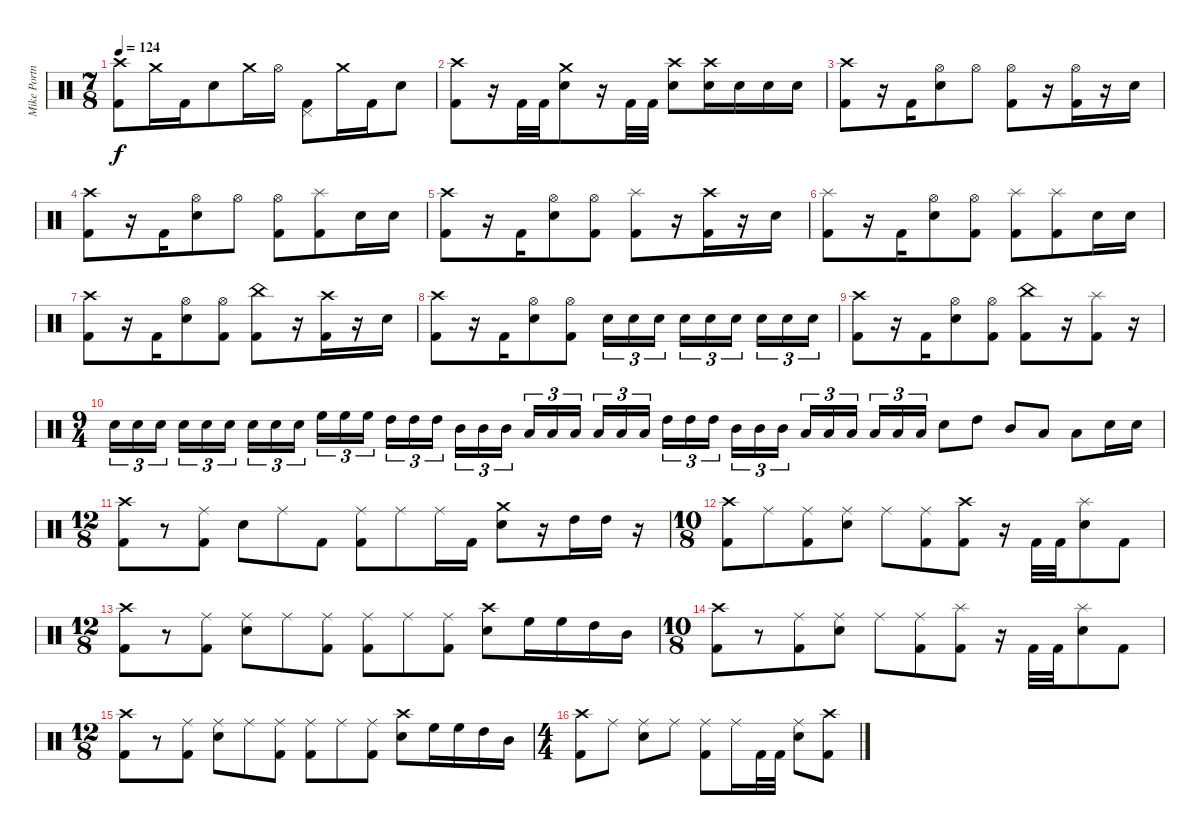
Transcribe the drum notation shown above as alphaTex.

\track ("Mike Portnoy - Drums" "Mike Portn") {instrument percussion}
\staff {score}
\articulation defaults
\ts (7 8)
\tempo 124
\clef neutral
\ks c
("Crash high (hit)" "Kick (hit) 2").8{dy f} "Crash medium (hit)".16 "Kick (hit) 2".16 "Electric Snare (hit)".8 "Crash medium (hit)".16 "Hi-Hat (open)".16 ("Pedal Hi-Hat (hit)" "Kick (hit) 2").8 "Crash medium (hit)".16 "Kick (hit) 2".16 "Electric Snare (hit)".8 |
("Crash high (hit)" "Kick (hit) 2").8 r.16 "Kick (hit) 2".32 "Kick (hit) 2".32 ("Crash medium (hit)" "Electric Snare (hit)").8 r.16 "Kick (hit) 2".32 "Kick (hit) 2".32 ("Crash high (hit)" "Electric Snare (hit)").8 ("Crash high (hit)" "Electric Snare (hit)").16 "Electric Snare (hit)".16 "Electric Snare (hit)".16 "Electric Snare (hit)".16 |
("Crash high (hit)" "Kick (hit) 2").8 r.16 "Kick (hit) 2".16 ("Hi-Hat (open)" "Electric Snare (hit)").8 "Hi-Hat (open)".8 ("Hi-Hat (open)" "Kick (hit) 2").8 r.16 ("Hi-Hat (open)" "Kick (hit) 2").16 r.16 "Electric Snare (hit)".16 |
("Crash high (hit)" "Kick (hit) 2").8 r.16 "Kick (hit) 2".16 ("Hi-Hat (open)" "Electric Snare (hit)").8 "Hi-Hat (open)".8 ("Hi-Hat (open)" "Kick (hit) 2").8 ("Splash (hit)" "Kick (hit) 2").8 "Electric Snare (hit)".16 "Electric Snare (hit)".16 |
("Crash high (hit)" "Kick (hit) 2").8 r.16 "Kick (hit) 2".16 ("Hi-Hat (open)" "Electric Snare (hit)").8 ("Hi-Hat (open)" "Kick (hit) 2").8 ("Splash (hit)" "Kick (hit) 2").8 r.16 ("Crash high (hit)" "Kick (hit) 2").16 r.16 "Electric Snare (hit)".16 |
("Splash (hit)" "Kick (hit) 2").8 r.16 "Kick (hit) 2".16 ("Hi-Hat (open)" "Electric Snare (hit)").8 ("Hi-Hat (open)" "Kick (hit) 2").8 ("Splash (hit)" "Kick (hit) 2").8 ("Splash (hit)" "Kick (hit) 2").8 "Electric Snare (hit)".16 "Electric Snare (hit)".16 |
("Crash high (hit)" "Kick (hit) 2").8 r.16 "Kick (hit) 2".16 ("Hi-Hat (open)" "Electric Snare (hit)").8 ("Hi-Hat (open)" "Kick (hit) 2").8 ("China (hit)" "Kick (hit) 2").8 r.16 ("Crash high (hit)" "Kick (hit) 2").16 r.16 "Electric Snare (hit)".16 |
("Crash high (hit)" "Kick (hit) 2").8 r.16 "Kick (hit) 2".16 ("Hi-Hat (open)" "Electric Snare (hit)").8 ("Hi-Hat (open)" "Kick (hit) 2").8 "Electric Snare (hit)".16{tu (3 2)} "Electric Snare (hit)".16{tu (3 2)} "Electric Snare (hit)".16{tu (3 2)} "Electric Snare (hit)".16{tu (3 2)} "Electric Snare (hit)".16{tu (3 2)} "Electric Snare (hit)".16{tu (3 2)} "Electric Snare (hit)".16{tu (3 2)} "Electric Snare (hit)".16{tu (3 2)} "Electric Snare (hit)".16{tu (3 2)} |
("Crash high (hit)" "Kick (hit) 2").8 r.16 "Kick (hit) 2".16 ("Hi-Hat (open)" "Electric Snare (hit)").8 ("Hi-Hat (open)" "Kick (hit) 2").8 ("China (hit)" "Kick (hit) 2").8 r.16 ("Splash (hit)" "Kick (hit) 2").8 r.16 |
\ts (9 4)
"Electric Snare (hit)".16{tu (3 2)} "Electric Snare (hit)".16{tu (3 2)} "Electric Snare (hit)".16{tu (3 2)} "Electric Snare (hit)".16{tu (3 2)} "Electric Snare (hit)".16{tu (3 2)} "Electric Snare (hit)".16{tu (3 2)} "Electric Snare (hit)".16{tu (3 2)} "Electric Snare (hit)".16{tu (3 2)} "Electric Snare (hit)".16{tu (3 2)} "High Floor Tom (hit)".16{tu (3 2)} "High Floor Tom (hit)".16{tu (3 2)} "High Floor Tom (hit)".16{tu (3 2)} "High Tom (hit)".16{tu (3 2)} "High Tom (hit)".16{tu (3 2)} "High Tom (hit)".16{tu (3 2)} "Mid Tom (hit)".16{tu (3 2)} "Mid Tom (hit)".16{tu (3 2)} "Mid Tom (hit)".16{tu (3 2)} "Low Tom (hit)".16{tu (3 2)} "Low Tom (hit)".16{tu (3 2)} "Low Tom (hit)".16{tu (3 2)} "Low Floor Tom (hit)".16{tu (3 2)} "Low Floor Tom (hit)".16{tu (3 2)} "Low Floor Tom (hit)".16{tu (3 2)} "High Tom (hit)".16{tu (3 2)} "High Tom (hit)".16{tu (3 2)} "High Tom (hit)".16{tu (3 2)} "Mid Tom (hit)".16{tu (3 2)} "Mid Tom (hit)".16{tu (3 2)} "Mid Tom (hit)".16{tu (3 2)} "Low Tom (hit)".16{tu (3 2)} "Low Tom (hit)".16{tu (3 2)} "Low Tom (hit)".16{tu (3 2)} "Low Floor Tom (hit)".16{tu (3 2)} "Low Floor Tom (hit)".16{tu (3 2)} "Low Floor Tom (hit)".16{tu (3 2)} "Electric Snare (hit)".8 "High Tom (hit)".8 "Mid Tom (hit)".8 "Low Tom (hit)".8 "Low Floor Tom (hit)".8 "Electric Snare (hit)".16 "Electric Snare (hit)".16 |
\ts (12 8)
("Crash high (hit)" "Kick (hit) 2").8 r.8 ("Ride (middle)" "Kick (hit) 2").8 "Electric Snare (hit)".8 "Ride (middle)".8 "Kick (hit) 2".8 ("Ride (middle)" "Kick (hit) 2").8 "Ride (middle)".8 "Ride (middle)".16 "Kick (hit) 2".16 ("Crash medium (hit)" "Electric Snare (hit)").8 r.16 "High Tom (hit)".16 "High Tom (hit)".16 r.16 |
\ts (10 8)
("Crash high (hit)" "Kick (hit) 2").8 "Ride (middle)".8 ("Ride (middle)" "Kick (hit) 2").8 ("Ride (middle)" "Electric Snare (hit)").8 "Ride (middle)".8 ("Ride (middle)" "Kick (hit) 2").8 ("Crash high (hit)" "Kick (hit) 2").8 r.16 "Kick (hit) 2".32 "Kick (hit) 2".32 ("Splash (hit)" "Electric Snare (hit)").8 "Kick (hit) 2".8 |
\ts (12 8)
("Crash high (hit)" "Kick (hit) 2").8 r.8 ("Ride (middle)" "Kick (hit) 2").8 ("Ride (middle)" "Electric Snare (hit)").8 "Ride (middle)".8 ("Ride (middle)" "Kick (hit) 2").8 ("Ride (middle)" "Kick (hit) 2").8 "Ride (middle)".8 ("Ride (middle)" "Kick (hit) 2").8 ("Crash high (hit)" "Electric Snare (hit)").8 "High Floor Tom (hit)".16 "High Floor Tom (hit)".16 "High Tom (hit)".16 "Mid Tom (hit)".16 |
\ts (10 8)
("Crash high (hit)" "Kick (hit) 2").8 r.8 ("Ride (middle)" "Kick (hit) 2").8 ("Ride (middle)" "Electric Snare (hit)").8 "Ride (middle)".8 ("Ride (middle)" "Kick (hit) 2").8 ("Splash (hit)" "Kick (hit) 2").8 r.16 "Kick (hit) 2".32 "Kick (hit) 2".32 ("Splash (hit)" "Electric Snare (hit)").8 "Kick (hit) 2".8 |
\ts (12 8)
("Crash high (hit)" "Kick (hit) 2").8 r.8 ("Ride (middle)" "Kick (hit) 2").8 ("Ride (middle)" "Electric Snare (hit)").8 "Ride (middle)".8 ("Ride (middle)" "Kick (hit) 2").8 ("Ride (middle)" "Kick (hit) 2").8 "Ride (middle)".8 ("Ride (middle)" "Kick (hit) 2").8 ("Crash high (hit)" "Electric Snare (hit)").8 "High Floor Tom (hit)".16 "High Floor Tom (hit)".16 "High Tom (hit)".16 "Mid Tom (hit)".16 |
\ts (4 4)
("Crash high (hit)" "Kick (hit) 2").8 "Ride (middle)".8 ("Ride (middle)" "Electric Snare (hit)").8 "Ride (middle)".8 ("Ride (middle)" "Kick (hit) 2").8 "Ride (middle)".16 "Kick (hit) 2".32 "Kick (hit) 2".32 ("Ride (middle)" "Electric Snare (hit)").8 ("Crash high (hit)" "Kick (hit) 2").8
